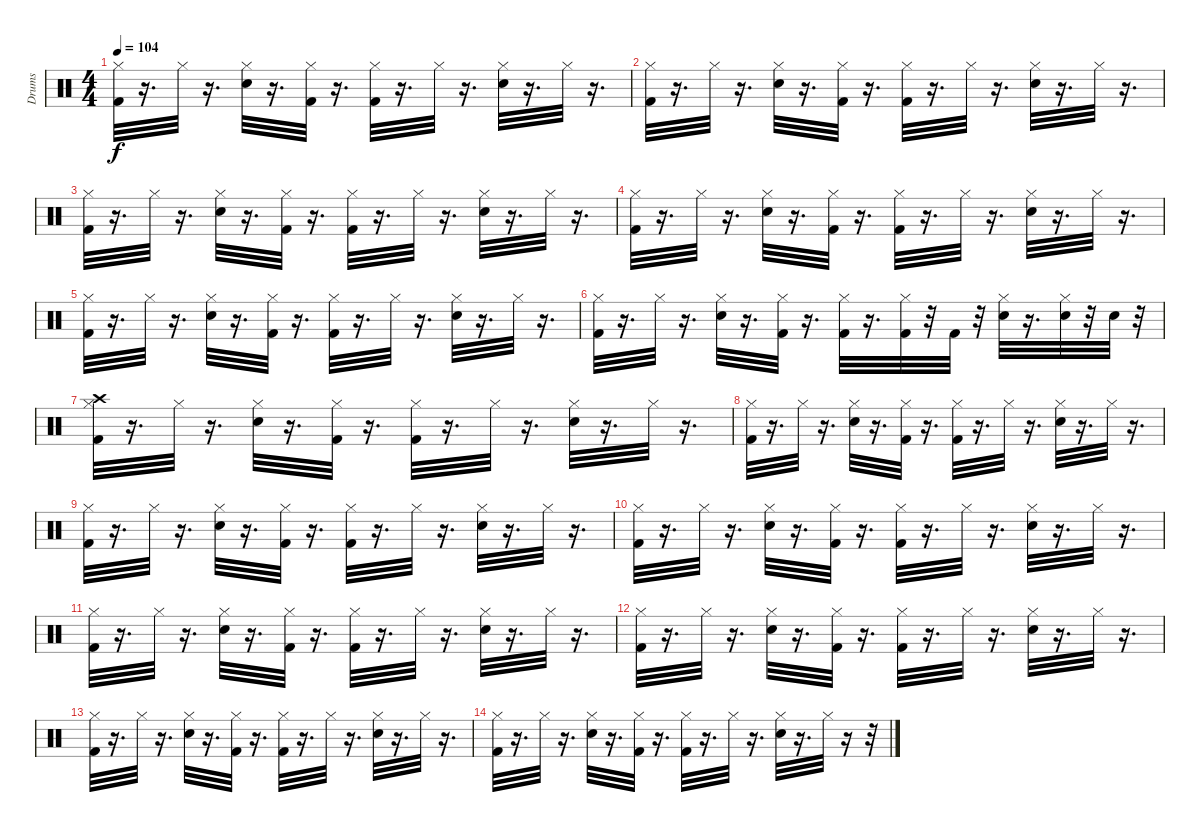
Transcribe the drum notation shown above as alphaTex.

\track ("Drums" "Drums") {instrument percussion}
\staff {score}
\articulation defaults
\ts (4 4)
\tempo 104
\clef neutral
\ks c
("Hi-Hat (closed)" "Kick (hit) 2").32{dy f} r.16{d} "Hi-Hat (closed)".32 r.16{d} ("Hi-Hat (closed)" "Snare (hit) 2").32 r.16{d} ("Kick (hit) 2" "Hi-Hat (closed)").32 r.16{d} ("Hi-Hat (closed)" "Kick (hit) 2").32 r.16{d} "Hi-Hat (closed)".32 r.16{d} ("Hi-Hat (closed)" "Snare (hit) 2").32 r.16{d} "Hi-Hat (closed)".32 r.16{d} |
("Hi-Hat (closed)" "Kick (hit) 2").32 r.16{d} "Hi-Hat (closed)".32 r.16{d} ("Hi-Hat (closed)" "Snare (hit) 2").32 r.16{d} ("Kick (hit) 2" "Hi-Hat (closed)").32 r.16{d} ("Hi-Hat (closed)" "Kick (hit) 2").32 r.16{d} "Hi-Hat (closed)".32 r.16{d} ("Hi-Hat (closed)" "Snare (hit) 2").32 r.16{d} "Hi-Hat (closed)".32 r.16{d} |
("Hi-Hat (closed)" "Kick (hit) 2").32 r.16{d} "Hi-Hat (closed)".32 r.16{d} ("Hi-Hat (closed)" "Snare (hit) 2").32 r.16{d} ("Kick (hit) 2" "Hi-Hat (closed)").32 r.16{d} ("Hi-Hat (closed)" "Kick (hit) 2").32 r.16{d} "Hi-Hat (closed)".32 r.16{d} ("Hi-Hat (closed)" "Snare (hit) 2").32 r.16{d} "Hi-Hat (closed)".32 r.16{d} |
("Hi-Hat (closed)" "Kick (hit) 2").32 r.16{d} "Hi-Hat (closed)".32 r.16{d} ("Hi-Hat (closed)" "Snare (hit) 2").32 r.16{d} ("Kick (hit) 2" "Hi-Hat (closed)").32 r.16{d} ("Hi-Hat (closed)" "Kick (hit) 2").32 r.16{d} "Hi-Hat (closed)".32 r.16{d} ("Hi-Hat (closed)" "Snare (hit) 2").32 r.16{d} "Hi-Hat (closed)".32 r.16{d} |
("Hi-Hat (closed)" "Kick (hit) 2").32 r.16{d} "Hi-Hat (closed)".32 r.16{d} ("Hi-Hat (closed)" "Snare (hit) 2").32 r.16{d} ("Kick (hit) 2" "Hi-Hat (closed)").32 r.16{d} ("Hi-Hat (closed)" "Kick (hit) 2").32 r.16{d} "Hi-Hat (closed)".32 r.16{d} ("Hi-Hat (closed)" "Snare (hit) 2").32 r.16{d} "Hi-Hat (closed)".32 r.16{d} |
("Hi-Hat (closed)" "Kick (hit) 2").32 r.16{d} "Hi-Hat (closed)".32 r.16{d} ("Hi-Hat (closed)" "Snare (hit) 2").32 r.16{d} ("Kick (hit) 2" "Hi-Hat (closed)").32 r.16{d} ("Hi-Hat (closed)" "Kick (hit) 2").32 r.16{d} ("Hi-Hat (closed)" "Kick (hit) 2").32 r.32 "Kick (hit) 2".32 r.32 ("Hi-Hat (closed)" "Snare (hit) 2").32 r.16{d} ("Hi-Hat (closed)" "Snare (hit) 2").32 r.32 "Snare (hit) 2".32 r.32 |
("Crash high (hit)" "Hi-Hat (closed)" "Kick (hit) 2").32 r.16{d} "Hi-Hat (closed)".32 r.16{d} ("Hi-Hat (closed)" "Snare (hit) 2").32 r.16{d} ("Kick (hit) 2" "Hi-Hat (closed)").32 r.16{d} ("Hi-Hat (closed)" "Kick (hit) 2").32 r.16{d} "Hi-Hat (closed)".32 r.16{d} ("Hi-Hat (closed)" "Snare (hit) 2").32 r.16{d} "Hi-Hat (closed)".32 r.16{d} |
("Hi-Hat (closed)" "Kick (hit) 2").32 r.16{d} "Hi-Hat (closed)".32 r.16{d} ("Hi-Hat (closed)" "Snare (hit) 2").32 r.16{d} ("Kick (hit) 2" "Hi-Hat (closed)").32 r.16{d} ("Hi-Hat (closed)" "Kick (hit) 2").32 r.16{d} "Hi-Hat (closed)".32 r.16{d} ("Hi-Hat (closed)" "Snare (hit) 2").32 r.16{d} "Hi-Hat (closed)".32 r.16{d} |
("Hi-Hat (closed)" "Kick (hit) 2").32 r.16{d} "Hi-Hat (closed)".32 r.16{d} ("Hi-Hat (closed)" "Snare (hit) 2").32 r.16{d} ("Kick (hit) 2" "Hi-Hat (closed)").32 r.16{d} ("Hi-Hat (closed)" "Kick (hit) 2").32 r.16{d} "Hi-Hat (closed)".32 r.16{d} ("Hi-Hat (closed)" "Snare (hit) 2").32 r.16{d} "Hi-Hat (closed)".32 r.16{d} |
("Hi-Hat (closed)" "Kick (hit) 2").32{volume 15} r.16{d} "Hi-Hat (closed)".32 r.16{d} ("Hi-Hat (closed)" "Snare (hit) 2").32 r.16{d} ("Kick (hit) 2" "Hi-Hat (closed)").32 r.16{d} ("Kick (hit) 2" "Hi-Hat (closed)").32 r.16{d} "Hi-Hat (closed)".32{volume 14} r.16{d} ("Snare (hit) 2" "Hi-Hat (closed)").32{volume 14} r.16{d} "Hi-Hat (closed)".32 r.16{d} |
("Kick (hit) 2" "Hi-Hat (closed)").32{volume 13} r.16{d} "Hi-Hat (closed)".32{volume 13} r.16{d} ("Hi-Hat (closed)" "Snare (hit) 2").32 r.16{d} ("Hi-Hat (closed)" "Kick (hit) 2").32{volume 12} r.16{d} ("Kick (hit) 2" "Hi-Hat (closed)").32{volume 12} r.16{d} "Hi-Hat (closed)".32 r.16{d} ("Hi-Hat (closed)" "Snare (hit) 2").32{volume 11} r.16{d} "Hi-Hat (closed)".32{volume 11} r.16{d} |
("Hi-Hat (closed)" "Kick (hit) 2").32{volume 10} r.16{d} "Hi-Hat (closed)".32{volume 10} r.16{d} ("Hi-Hat (closed)" "Snare (hit) 2").32{volume 9} r.16{d} ("Kick (hit) 2" "Hi-Hat (closed)").32{volume 9} r.16{d} ("Kick (hit) 2" "Hi-Hat (closed)").32{volume 8} r.16{d} "Hi-Hat (closed)".32{volume 8} r.16{d} ("Hi-Hat (closed)" "Snare (hit) 2").32{volume 7} r.16{d} "Hi-Hat (closed)".32{volume 7} r.16{d} |
("Kick (hit) 2" "Hi-Hat (closed)").32{volume 6} r.16{d} "Hi-Hat (closed)".32 r.16{d} ("Hi-Hat (closed)" "Snare (hit) 2").32{volume 5} r.16{d} ("Kick (hit) 2" "Hi-Hat (closed)").32{volume 4} r.16{d} ("Kick (hit) 2" "Hi-Hat (closed)").32 r.16{d} "Hi-Hat (closed)".32{volume 4} r.16{d} ("Snare (hit) 2" "Hi-Hat (closed)").32{volume 3} r.16{d} "Hi-Hat (closed)".32{volume 3} r.16{d} |
("Hi-Hat (closed)" "Kick (hit) 2").32{volume 2} r.16{d} "Hi-Hat (closed)".32{volume 2} r.16{d} ("Hi-Hat (closed)" "Snare (hit) 2").32{volume 1} r.16{d} ("Hi-Hat (closed)" "Kick (hit) 2").32 r.16{d} ("Hi-Hat (closed)" "Kick (hit) 2").32 r.16{d} "Hi-Hat (closed)".32{volume 1} r.16{d} ("Hi-Hat (closed)" "Snare (hit) 2").32 r.16{d} "Hi-Hat (closed)".32 r.16 r.32
